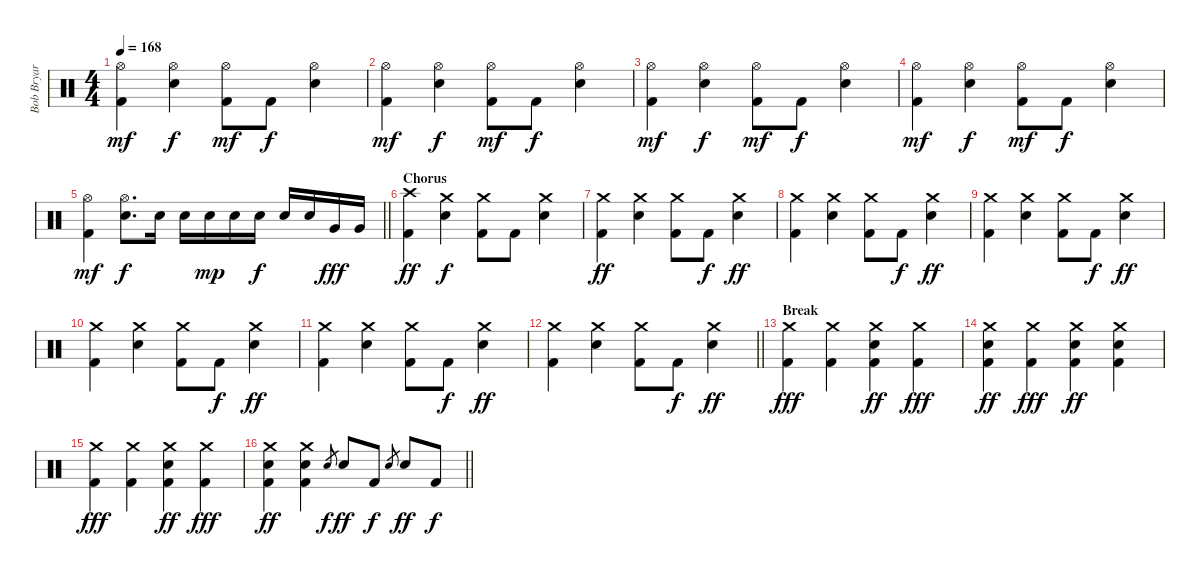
\track ("Bob Bryar" "Bob Bryar") {instrument percussion}
\staff {score}
\articulation defaults
\ts (4 4)
\tempo 168
\clef neutral
\ks c
("Hi-Hat (open)" "Kick (hit) 2").4{dy mf} ("Hi-Hat (open)" "Electric Snare (hit)").4{dy f} ("Hi-Hat (open)" "Kick (hit) 2").8{dy mf} "Kick (hit) 2".8{dy f} ("Hi-Hat (open)" "Electric Snare (hit)").4 |
("Hi-Hat (open)" "Kick (hit) 2").4{dy mf} ("Hi-Hat (open)" "Electric Snare (hit)").4{dy f} ("Hi-Hat (open)" "Kick (hit) 2").8{dy mf} "Kick (hit) 2".8{dy f} ("Hi-Hat (open)" "Electric Snare (hit)").4 |
("Hi-Hat (open)" "Kick (hit) 2").4{dy mf} ("Hi-Hat (open)" "Electric Snare (hit)").4{dy f} ("Hi-Hat (open)" "Kick (hit) 2").8{dy mf} "Kick (hit) 2".8{dy f} ("Hi-Hat (open)" "Electric Snare (hit)").4 |
("Hi-Hat (open)" "Kick (hit) 2").4{dy mf} ("Hi-Hat (open)" "Electric Snare (hit)").4{dy f} ("Hi-Hat (open)" "Kick (hit) 2").8{dy mf} "Kick (hit) 2".8{dy f} ("Hi-Hat (open)" "Electric Snare (hit)").4 |
\barLineRight lightlight
("Hi-Hat (open)" "Kick (hit) 2").4{dy mf} ("Hi-Hat (open)" "Electric Snare (hit)").8{d dy f} "Electric Snare (hit)".16 "Electric Snare (hit)".16 "Electric Snare (hit)".16{dy mp} "Electric Snare (hit)".16 "Electric Snare (hit)".16{dy f} "Electric Snare (hit)".16 "Electric Snare (hit)".16 "Very Low Tom (hit)".16{dy fff} "Very Low Tom (hit)".16 |
\section ("" "Chorus")
("Crash high (hit)" "Kick (hit) 2").4{dy ff} ("Crash medium (hit)" "Electric Snare (hit)").4{dy f} ("Crash medium (hit)" "Kick (hit) 2").8 "Kick (hit) 2".8 ("Crash medium (hit)" "Electric Snare (hit)").4 |
("Crash medium (hit)" "Kick (hit) 2").4{dy ff} ("Crash medium (hit)" "Electric Snare (hit)").4 ("Crash medium (hit)" "Kick (hit) 2").8 "Kick (hit) 2".8{dy f} ("Crash medium (hit)" "Electric Snare (hit)").4{dy ff} |
("Crash medium (hit)" "Kick (hit) 2").4 ("Crash medium (hit)" "Electric Snare (hit)").4 ("Crash medium (hit)" "Kick (hit) 2").8 "Kick (hit) 2".8{dy f} ("Crash medium (hit)" "Electric Snare (hit)").4{dy ff} |
("Crash medium (hit)" "Kick (hit) 2").4 ("Crash medium (hit)" "Electric Snare (hit)").4 ("Crash medium (hit)" "Kick (hit) 2").8 "Kick (hit) 2".8{dy f} ("Crash medium (hit)" "Electric Snare (hit)").4{dy ff} |
("Crash medium (hit)" "Kick (hit) 2").4 ("Crash medium (hit)" "Electric Snare (hit)").4 ("Crash medium (hit)" "Kick (hit) 2").8 "Kick (hit) 2".8{dy f} ("Crash medium (hit)" "Electric Snare (hit)").4{dy ff} |
("Crash medium (hit)" "Kick (hit) 2").4 ("Crash medium (hit)" "Electric Snare (hit)").4 ("Crash medium (hit)" "Kick (hit) 2").8 "Kick (hit) 2".8{dy f} ("Crash medium (hit)" "Electric Snare (hit)").4{dy ff} |
\barLineRight lightlight
("Crash medium (hit)" "Kick (hit) 2").4 ("Crash medium (hit)" "Electric Snare (hit)").4 ("Crash medium (hit)" "Kick (hit) 2").8 "Kick (hit) 2".8{dy f} ("Crash medium (hit)" "Electric Snare (hit)").4{dy ff} |
\section ("" "Break")
("Crash medium (hit)" "Kick (hit) 2").4{dy fff} ("Crash medium (hit)" "Kick (hit) 2").4 ("Crash medium (hit)" "Electric Snare (hit)" "Kick (hit) 2").4{dy ff} ("Crash medium (hit)" "Kick (hit) 2").4{dy fff} |
("Crash medium (hit)" "Electric Snare (hit)" "Kick (hit) 2").4{dy ff} ("Crash medium (hit)" "Kick (hit) 2").4{dy fff} ("Crash medium (hit)" "Electric Snare (hit)" "Kick (hit) 2").4{dy ff} ("Crash medium (hit)" "Electric Snare (hit)" "Kick (hit) 2").4 |
("Crash medium (hit)" "Kick (hit) 2").4{dy fff} ("Crash medium (hit)" "Kick (hit) 2").4 ("Crash medium (hit)" "Electric Snare (hit)" "Kick (hit) 2").4{dy ff} ("Crash medium (hit)" "Kick (hit) 2").4{dy fff} |
\barLineRight lightlight
("Crash medium (hit)" "Electric Snare (hit)" "Kick (hit) 2").4{dy ff} ("Crash medium (hit)" "Electric Snare (hit)" "Kick (hit) 2").4 "Electric Snare (hit)".8{gr dy f} "Electric Snare (hit)".8{dy ff} "Kick (hit) 2".8{dy f} "Electric Snare (hit)".8{gr} "Electric Snare (hit)".8{dy ff} "Kick (hit) 2".8{dy f}
